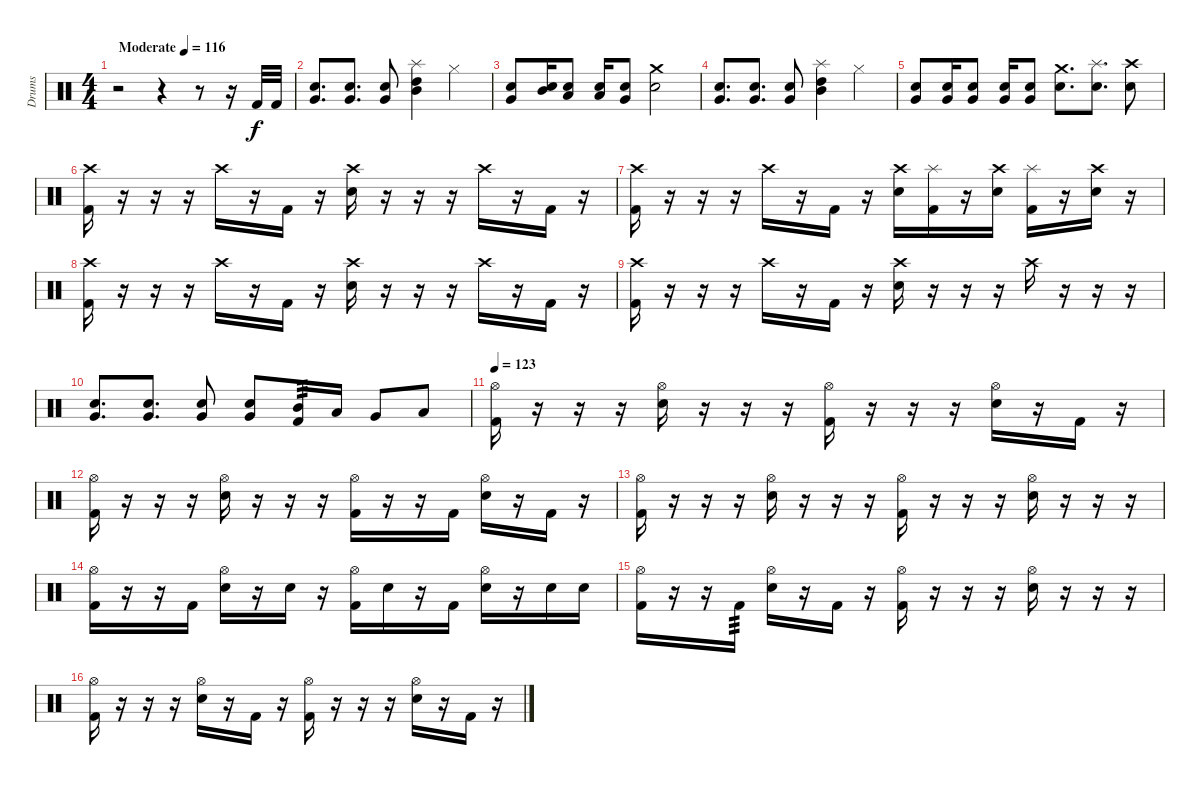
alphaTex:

\track ("Drums" "Drums") {instrument percussion}
\staff {score}
\articulation defaults
\ts (4 4)
\tempo (116 "Moderate")
\clef neutral
\ks c
r.2{dy f} r.4 r.8 r.16 "Kick (hit) 2".32 "Kick (hit) 2".32 |
("Very Low Tom (hit)" "Snare (hit) 2").8{d} ("Very Low Tom (hit)" "Snare (hit) 2").8{d} ("Very Low Tom (hit)" "Snare (hit) 2").8 ("Splash (hit)" "High Tom (hit)" "Mid Tom (hit)").4 "Hi-Hat (closed)".4 |
("Very Low Tom (hit)" "Snare (hit) 2").8 ("Mid Tom (hit)" "Snare (hit) 2").16 ("Low Tom (hit)" "Snare (hit) 2").8 ("Low Tom (hit)" "Snare (hit) 2").16 ("Very Low Tom (hit)" "Snare (hit) 2").8 ("Crash medium (hit)" "Electric Snare (hit)").2 |
("Very Low Tom (hit)" "Snare (hit) 2").8{d} ("Very Low Tom (hit)" "Snare (hit) 2").8{d} ("Very Low Tom (hit)" "Snare (hit) 2").8 ("Splash (hit)" "High Tom (hit)" "Mid Tom (hit)").4 "Hi-Hat (closed)".4 |
("Very Low Tom (hit)" "Snare (hit) 2").8 ("Very Low Tom (hit)" "Snare (hit) 2").16 ("Very Low Tom (hit)" "Snare (hit) 2").8 ("Very Low Tom (hit)" "Snare (hit) 2").16 ("Very Low Tom (hit)" "Snare (hit) 2").8 ("Crash medium (hit)" "Electric Snare (hit)").8{d} ("Splash (hit)" "Electric Snare (hit)").8{d} ("Crash high (hit)" "Electric Snare (hit)").8 |
("Crash high (hit)" "Kick (hit) 2").16 r.16 r.16 r.16 "Crash high (hit)".16 r.16 "Kick (hit) 2".16 r.16 ("Crash high (hit)" "Electric Snare (hit)").16 r.16 r.16 r.16 "Crash high (hit)".16 r.16 "Kick (hit) 2".16 r.16 |
("Crash high (hit)" "Kick (hit) 2").16 r.16 r.16 r.16 "Crash high (hit)".16 r.16 "Kick (hit) 2".16 r.16 ("Crash high (hit)" "Electric Snare (hit)").16 ("Splash (hit)" "Kick (hit) 2").16 r.16 ("Crash high (hit)" "Electric Snare (hit)").16 ("Splash (hit)" "Kick (hit) 2").16 r.16 ("Crash high (hit)" "Electric Snare (hit)").16 r.16 |
("Crash high (hit)" "Kick (hit) 2").16 r.16 r.16 r.16 "Crash high (hit)".16 r.16 "Kick (hit) 2".16 r.16 ("Crash high (hit)" "Electric Snare (hit)").16 r.16 r.16 r.16 "Crash high (hit)".16 r.16 "Kick (hit) 2".16 r.16 |
("Crash high (hit)" "Kick (hit) 2").16 r.16 r.16 r.16 "Crash high (hit)".16 r.16 "Kick (hit) 2".16 r.16 ("Crash high (hit)" "Electric Snare (hit)").16 r.16 r.16 r.16 "Crash high (hit)".16 r.16 r.16 r.16 |
("Very Low Tom (hit)" "Snare (hit) 2").8{d} ("Very Low Tom (hit)" "Snare (hit) 2").8{d} ("Very Low Tom (hit)" "Snare (hit) 2").8 ("Very Low Tom (hit)" "Snare (hit) 2").8 ("Mid Tom (hit)" "Kick (hit) 2").16{tp 3} "Low Tom (hit)".16 "Very Low Tom (hit)".8 "Low Floor Tom (hit)".8 |
\tempo 123
("Hi-Hat (open)" "Kick (hit) 2").16 r.16 r.16 r.16 ("Hi-Hat (open)" "Electric Snare (hit)").16 r.16 r.16 r.16 ("Hi-Hat (open)" "Kick (hit) 2").16 r.16 r.16 r.16 ("Hi-Hat (open)" "Electric Snare (hit)").16 r.16 "Kick (hit) 2".16 r.16 |
("Hi-Hat (open)" "Kick (hit) 2").16 r.16 r.16 r.16 ("Hi-Hat (open)" "Electric Snare (hit)").16 r.16 r.16 r.16 ("Hi-Hat (open)" "Kick (hit) 2").16 r.16 r.16 "Kick (hit) 2".16 ("Hi-Hat (open)" "Electric Snare (hit)").16 r.16 "Kick (hit) 2".16 r.16 |
("Hi-Hat (open)" "Kick (hit) 2").16 r.16 r.16 r.16 ("Hi-Hat (open)" "Electric Snare (hit)").16 r.16 r.16 r.16 ("Hi-Hat (open)" "Kick (hit) 2").16 r.16 r.16 r.16 ("Hi-Hat (open)" "Electric Snare (hit)").16 r.16 r.16 r.16 |
("Hi-Hat (open)" "Kick (hit) 2").16 r.16 r.16 "Kick (hit) 2".16 ("Hi-Hat (open)" "Electric Snare (hit)").16 r.16 "Electric Snare (hit)".16 r.16 ("Hi-Hat (open)" "Kick (hit) 2").16 "Electric Snare (hit)".16 r.16 "Kick (hit) 2".16 ("Hi-Hat (open)" "Electric Snare (hit)").16 r.16 "Electric Snare (hit)".16 "Electric Snare (hit)".16 |
("Hi-Hat (open)" "Kick (hit) 2").16 r.16 r.16 "Kick (hit) 2".16{tp 3} ("Hi-Hat (open)" "Electric Snare (hit)").16 r.16 "Kick (hit) 2".16 r.16 ("Hi-Hat (open)" "Kick (hit) 2").16 r.16 r.16 r.16 ("Hi-Hat (open)" "Electric Snare (hit)").16 r.16 r.16 r.16 |
("Hi-Hat (open)" "Kick (hit) 2").16 r.16 r.16 r.16 ("Hi-Hat (open)" "Electric Snare (hit)").16 r.16 "Kick (hit) 2".16 r.16 ("Hi-Hat (open)" "Kick (hit) 2").16 r.16 r.16 r.16 ("Hi-Hat (open)" "Electric Snare (hit)").16 r.16 "Kick (hit) 2".16 r.16
